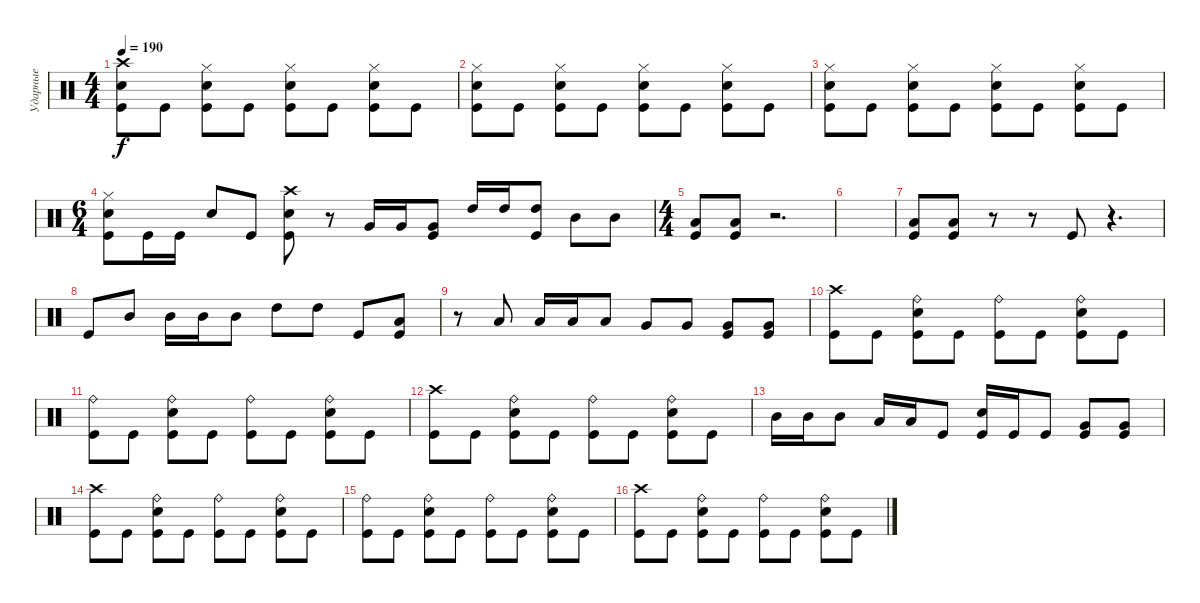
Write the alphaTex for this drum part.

\track ("Ударные" "Ударные") {instrument percussion}
\staff {score}
\articulation defaults
\ts (4 4)
\tempo 190
\clef neutral
\ks c
("Crash high (hit)" "Electric Snare (hit)" "Kick (hit)").8{dy f} "Kick (hit)".8 ("Hi-Hat (closed)" "Electric Snare (hit)" "Kick (hit)").8 "Kick (hit)".8 ("Hi-Hat (closed)" "Electric Snare (hit)" "Kick (hit)").8 "Kick (hit)".8 ("Hi-Hat (closed)" "Electric Snare (hit)" "Kick (hit)").8 "Kick (hit)".8 |
("Hi-Hat (closed)" "Electric Snare (hit)" "Kick (hit)").8 "Kick (hit)".8 ("Hi-Hat (closed)" "Electric Snare (hit)" "Kick (hit)").8 "Kick (hit)".8 ("Hi-Hat (closed)" "Electric Snare (hit)" "Kick (hit)").8 "Kick (hit)".8 ("Hi-Hat (closed)" "Electric Snare (hit)" "Kick (hit)").8 "Kick (hit)".8 |
("Hi-Hat (closed)" "Electric Snare (hit)" "Kick (hit)").8 "Kick (hit)".8 ("Hi-Hat (closed)" "Electric Snare (hit)" "Kick (hit)").8 "Kick (hit)".8 ("Hi-Hat (closed)" "Electric Snare (hit)" "Kick (hit)").8 "Kick (hit)".8 ("Hi-Hat (closed)" "Electric Snare (hit)" "Kick (hit)").8 "Kick (hit)".8 |
\ts (6 4)
("Hi-Hat (closed)" "Electric Snare (hit)" "Kick (hit)").8 "Kick (hit)".16 "Kick (hit)".16 "Electric Snare (hit)".8 "Kick (hit)".8 ("Crash high (hit)" "Electric Snare (hit)" "Kick (hit)").8 r.8 "Very Low Tom (hit)".16 "Very Low Tom (hit)".16 ("Very Low Tom (hit)" "Kick (hit)").8 "High Tom (hit)".16 "High Tom (hit)".16 ("High Tom (hit)" "Kick (hit)").8 "Mid Tom (hit)".8 "Mid Tom (hit)".8 |
\ts (4 4)
("Low Tom (hit)" "Kick (hit)").8 ("Low Tom (hit)" "Kick (hit)").8 r.2{d} |
|
("Low Tom (hit)" "Kick (hit)").8 ("Low Tom (hit)" "Kick (hit)").8 r.8 r.8 "Kick (hit)".8 r.4{d} |
"Kick (hit)".8 "Mid Tom (hit)".8 "Mid Tom (hit)".16 "Mid Tom (hit)".16 "Mid Tom (hit)".8 "High Tom (hit)".8 "High Tom (hit)".8 "Kick (hit)".8 ("Low Tom (hit)" "Kick (hit)").8 |
r.8 "Low Tom (hit)".8 "Low Tom (hit)".16 "Low Tom (hit)".16 "Low Tom (hit)".8 "Very Low Tom (hit)".8 "Very Low Tom (hit)".8 ("Very Low Tom (hit)" "Kick (hit)").8 ("Very Low Tom (hit)" "Kick (hit)").8 |
("Crash high (hit)" "Kick (hit)").8 "Kick (hit)".8 ("Ride (bell)" "Electric Snare (hit)" "Kick (hit)").8 "Kick (hit)".8 ("Ride (bell)" "Kick (hit)").8 "Kick (hit)".8 ("Ride (bell)" "Electric Snare (hit)" "Kick (hit)").8 "Kick (hit)".8 |
("Ride (bell)" "Kick (hit)").8 "Kick (hit)".8 ("Ride (bell)" "Electric Snare (hit)" "Kick (hit)").8 "Kick (hit)".8 ("Ride (bell)" "Kick (hit)").8 "Kick (hit)".8 ("Ride (bell)" "Electric Snare (hit)" "Kick (hit)").8 "Kick (hit)".8 |
("Crash high (hit)" "Kick (hit)").8 "Kick (hit)".8 ("Ride (bell)" "Electric Snare (hit)" "Kick (hit)").8 "Kick (hit)".8 ("Ride (bell)" "Kick (hit)").8 "Kick (hit)".8 ("Ride (bell)" "Electric Snare (hit)" "Kick (hit)").8 "Kick (hit)".8 |
"Mid Tom (hit)".16 "Mid Tom (hit)".16 "Mid Tom (hit)".8 "Low Tom (hit)".16 "Low Tom (hit)".16 "Kick (hit)".8 ("Electric Snare (hit)" "Kick (hit)").16 "Kick (hit)".16 "Kick (hit)".8 ("Very Low Tom (hit)" "Kick (hit)").8 ("Very Low Tom (hit)" "Kick (hit)").8 |
("Crash high (hit)" "Kick (hit)").8 "Kick (hit)".8 ("Ride (bell)" "Electric Snare (hit)" "Kick (hit)").8 "Kick (hit)".8 ("Ride (bell)" "Kick (hit)").8 "Kick (hit)".8 ("Ride (bell)" "Electric Snare (hit)" "Kick (hit)").8 "Kick (hit)".8 |
("Ride (bell)" "Kick (hit)").8 "Kick (hit)".8 ("Ride (bell)" "Electric Snare (hit)" "Kick (hit)").8 "Kick (hit)".8 ("Ride (bell)" "Kick (hit)").8 "Kick (hit)".8 ("Ride (bell)" "Electric Snare (hit)" "Kick (hit)").8 "Kick (hit)".8 |
("Crash high (hit)" "Kick (hit)").8 "Kick (hit)".8 ("Ride (bell)" "Electric Snare (hit)" "Kick (hit)").8 "Kick (hit)".8 ("Ride (bell)" "Kick (hit)").8 "Kick (hit)".8 ("Ride (bell)" "Electric Snare (hit)" "Kick (hit)").8 "Kick (hit)".8
